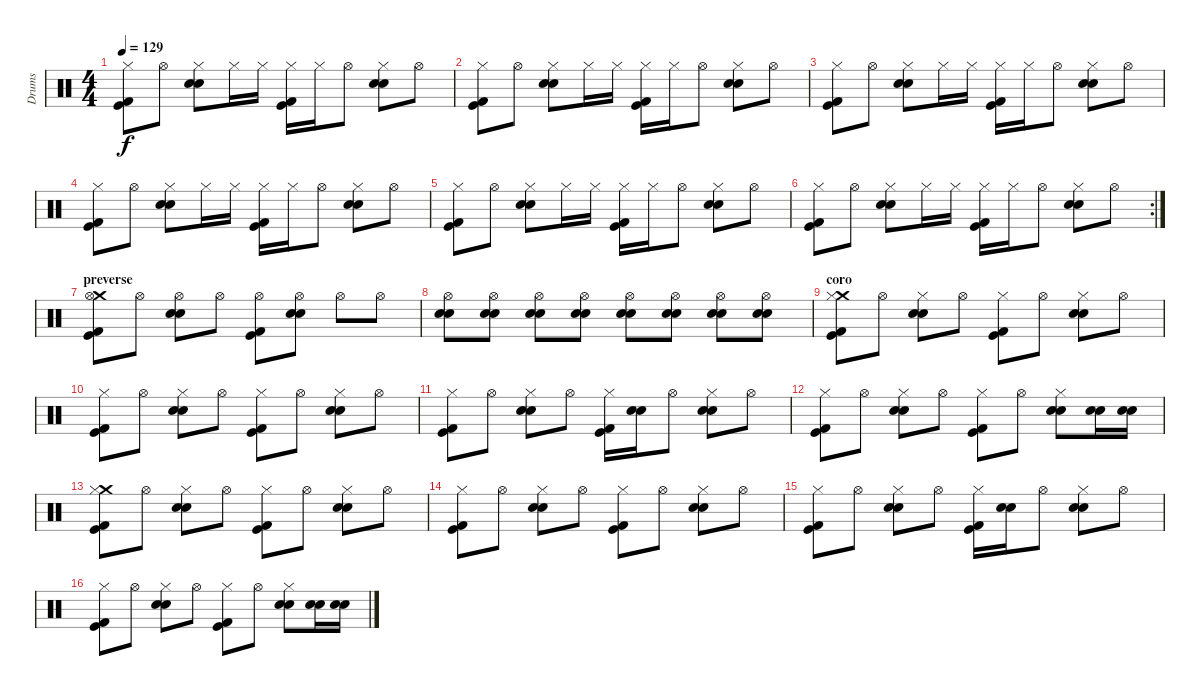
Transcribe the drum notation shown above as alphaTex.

\track ("Drums" "Drums") {instrument percussion}
\staff {score}
\articulation defaults
\ts (4 4)
\tempo 129
\clef neutral
\ks c
("Hi-Hat (closed)" "Kick (hit) 2" "Kick (hit)").8{dy f} "Hi-Hat (open)".8 ("Hi-Hat (closed)" "Snare (hit) 2" "Snare (hit) 2").8 "Hi-Hat (closed)".16 "Hi-Hat (closed)".16 ("Hi-Hat (closed)" "Kick (hit)" "Kick (hit) 2").16 "Hi-Hat (closed)".16 "Hi-Hat (open)".8 ("Hi-Hat (closed)" "Snare (hit) 2" "Snare (hit) 2").8 "Hi-Hat (open)".8 |
("Hi-Hat (closed)" "Kick (hit) 2" "Kick (hit)").8 "Hi-Hat (open)".8 ("Hi-Hat (closed)" "Snare (hit) 2" "Snare (hit) 2").8 "Hi-Hat (closed)".16 "Hi-Hat (closed)".16 ("Hi-Hat (closed)" "Kick (hit)" "Kick (hit) 2").16 "Hi-Hat (closed)".16 "Hi-Hat (open)".8 ("Hi-Hat (closed)" "Snare (hit) 2" "Snare (hit) 2").8 "Hi-Hat (open)".8 |
("Hi-Hat (closed)" "Kick (hit) 2" "Kick (hit)").8 "Hi-Hat (open)".8 ("Hi-Hat (closed)" "Snare (hit) 2" "Snare (hit) 2").8 "Hi-Hat (closed)".16 "Hi-Hat (closed)".16 ("Hi-Hat (closed)" "Kick (hit)" "Kick (hit) 2").16 "Hi-Hat (closed)".16 "Hi-Hat (open)".8 ("Hi-Hat (closed)" "Snare (hit) 2" "Snare (hit) 2").8 "Hi-Hat (open)".8 |
("Hi-Hat (closed)" "Kick (hit) 2" "Kick (hit)").8 "Hi-Hat (open)".8 ("Hi-Hat (closed)" "Snare (hit) 2" "Snare (hit) 2").8 "Hi-Hat (closed)".16 "Hi-Hat (closed)".16 ("Hi-Hat (closed)" "Kick (hit)" "Kick (hit) 2").16 "Hi-Hat (closed)".16 "Hi-Hat (open)".8 ("Hi-Hat (closed)" "Snare (hit) 2" "Snare (hit) 2").8 "Hi-Hat (open)".8 |
("Hi-Hat (closed)" "Kick (hit) 2" "Kick (hit)").8 "Hi-Hat (open)".8 ("Hi-Hat (closed)" "Snare (hit) 2" "Snare (hit) 2").8 "Hi-Hat (closed)".16 "Hi-Hat (closed)".16 ("Hi-Hat (closed)" "Kick (hit)" "Kick (hit) 2").16 "Hi-Hat (closed)".16 "Hi-Hat (open)".8 ("Hi-Hat (closed)" "Snare (hit) 2" "Snare (hit) 2").8 "Hi-Hat (open)".8 |
\rc 2
("Hi-Hat (closed)" "Kick (hit) 2" "Kick (hit)").8 "Hi-Hat (open)".8 ("Hi-Hat (closed)" "Snare (hit) 2" "Snare (hit) 2").8 "Hi-Hat (closed)".16 "Hi-Hat (closed)".16 ("Hi-Hat (closed)" "Kick (hit)" "Kick (hit) 2").16 "Hi-Hat (closed)".16 "Hi-Hat (open)".8 ("Hi-Hat (closed)" "Snare (hit) 2" "Snare (hit) 2").8 "Hi-Hat (open)".8 |
\section ("" "preverse")
("Crash medium (hit)" "Hi-Hat (open)" "Kick (hit) 2" "Kick (hit)").8 "Hi-Hat (open)".8 ("Hi-Hat (open)" "Snare (hit) 2" "Snare (hit) 2").8 "Hi-Hat (open)".8 ("Hi-Hat (open)" "Kick (hit) 2" "Kick (hit)").8 ("Hi-Hat (open)" "Snare (hit) 2" "Snare (hit) 2").8 "Hi-Hat (open)".8 "Hi-Hat (open)".8 |
("Hi-Hat (open)" "Snare (hit) 2" "Snare (hit) 2").8 ("Hi-Hat (open)" "Snare (hit) 2" "Snare (hit) 2").8 ("Hi-Hat (open)" "Snare (hit) 2" "Snare (hit) 2").8 ("Hi-Hat (open)" "Snare (hit) 2" "Snare (hit) 2").8 ("Hi-Hat (open)" "Snare (hit) 2" "Snare (hit) 2").8 ("Hi-Hat (open)" "Snare (hit) 2" "Snare (hit) 2").8 ("Hi-Hat (open)" "Snare (hit) 2" "Snare (hit) 2").8 ("Hi-Hat (open)" "Snare (hit) 2" "Snare (hit) 2").8 |
\section ("" "coro")
("Crash medium (hit)" "Hi-Hat (closed)" "Kick (hit) 2" "Kick (hit)").8 "Hi-Hat (open)".8 ("Hi-Hat (closed)" "Snare (hit) 2" "Snare (hit) 2").8 "Hi-Hat (open)".8 ("Hi-Hat (closed)" "Kick (hit) 2" "Kick (hit)").8 "Hi-Hat (open)".8 ("Hi-Hat (closed)" "Snare (hit) 2" "Snare (hit) 2").8 "Hi-Hat (open)".8 |
("Hi-Hat (closed)" "Kick (hit) 2" "Kick (hit)").8 "Hi-Hat (open)".8 ("Hi-Hat (closed)" "Snare (hit) 2" "Snare (hit) 2").8 "Hi-Hat (open)".8 ("Hi-Hat (closed)" "Kick (hit) 2" "Kick (hit)").8 "Hi-Hat (open)".8 ("Hi-Hat (closed)" "Snare (hit) 2" "Snare (hit) 2").8 "Hi-Hat (open)".8 |
("Hi-Hat (closed)" "Kick (hit) 2" "Kick (hit)").8 "Hi-Hat (open)".8 ("Hi-Hat (closed)" "Snare (hit) 2" "Snare (hit) 2").8 "Hi-Hat (open)".8 ("Hi-Hat (closed)" "Kick (hit) 2" "Kick (hit)").16 ("Snare (hit) 2" "Snare (hit) 2").16 "Hi-Hat (open)".8 ("Hi-Hat (closed)" "Snare (hit) 2" "Snare (hit) 2").8 "Hi-Hat (open)".8 |
("Hi-Hat (closed)" "Kick (hit) 2" "Kick (hit)").8 "Hi-Hat (open)".8 ("Hi-Hat (closed)" "Snare (hit) 2" "Snare (hit) 2").8 "Hi-Hat (open)".8 ("Hi-Hat (closed)" "Kick (hit) 2" "Kick (hit)").8 "Hi-Hat (open)".8 ("Hi-Hat (closed)" "Snare (hit) 2" "Snare (hit) 2").8 ("Snare (hit) 2" "Snare (hit) 2").16 ("Snare (hit) 2" "Snare (hit) 2").16 |
("Crash medium (hit)" "Hi-Hat (closed)" "Kick (hit) 2" "Kick (hit)").8 "Hi-Hat (open)".8 ("Hi-Hat (closed)" "Snare (hit) 2" "Snare (hit) 2").8 "Hi-Hat (open)".8 ("Hi-Hat (closed)" "Kick (hit) 2" "Kick (hit)").8 "Hi-Hat (open)".8 ("Hi-Hat (closed)" "Snare (hit) 2" "Snare (hit) 2").8 "Hi-Hat (open)".8 |
("Hi-Hat (closed)" "Kick (hit) 2" "Kick (hit)").8 "Hi-Hat (open)".8 ("Hi-Hat (closed)" "Snare (hit) 2" "Snare (hit) 2").8 "Hi-Hat (open)".8 ("Hi-Hat (closed)" "Kick (hit) 2" "Kick (hit)").8 "Hi-Hat (open)".8 ("Hi-Hat (closed)" "Snare (hit) 2" "Snare (hit) 2").8 "Hi-Hat (open)".8 |
("Hi-Hat (closed)" "Kick (hit) 2" "Kick (hit)").8 "Hi-Hat (open)".8 ("Hi-Hat (closed)" "Snare (hit) 2" "Snare (hit) 2").8 "Hi-Hat (open)".8 ("Hi-Hat (closed)" "Kick (hit) 2" "Kick (hit)").16 ("Snare (hit) 2" "Snare (hit) 2").16 "Hi-Hat (open)".8 ("Hi-Hat (closed)" "Snare (hit) 2" "Snare (hit) 2").8 "Hi-Hat (open)".8 |
("Hi-Hat (closed)" "Kick (hit) 2" "Kick (hit)").8 "Hi-Hat (open)".8 ("Hi-Hat (closed)" "Snare (hit) 2" "Snare (hit) 2").8 "Hi-Hat (open)".8 ("Hi-Hat (closed)" "Kick (hit) 2" "Kick (hit)").8 "Hi-Hat (open)".8 ("Hi-Hat (closed)" "Snare (hit) 2" "Snare (hit) 2").8 ("Snare (hit) 2" "Snare (hit) 2").16 ("Snare (hit) 2" "Snare (hit) 2").16
